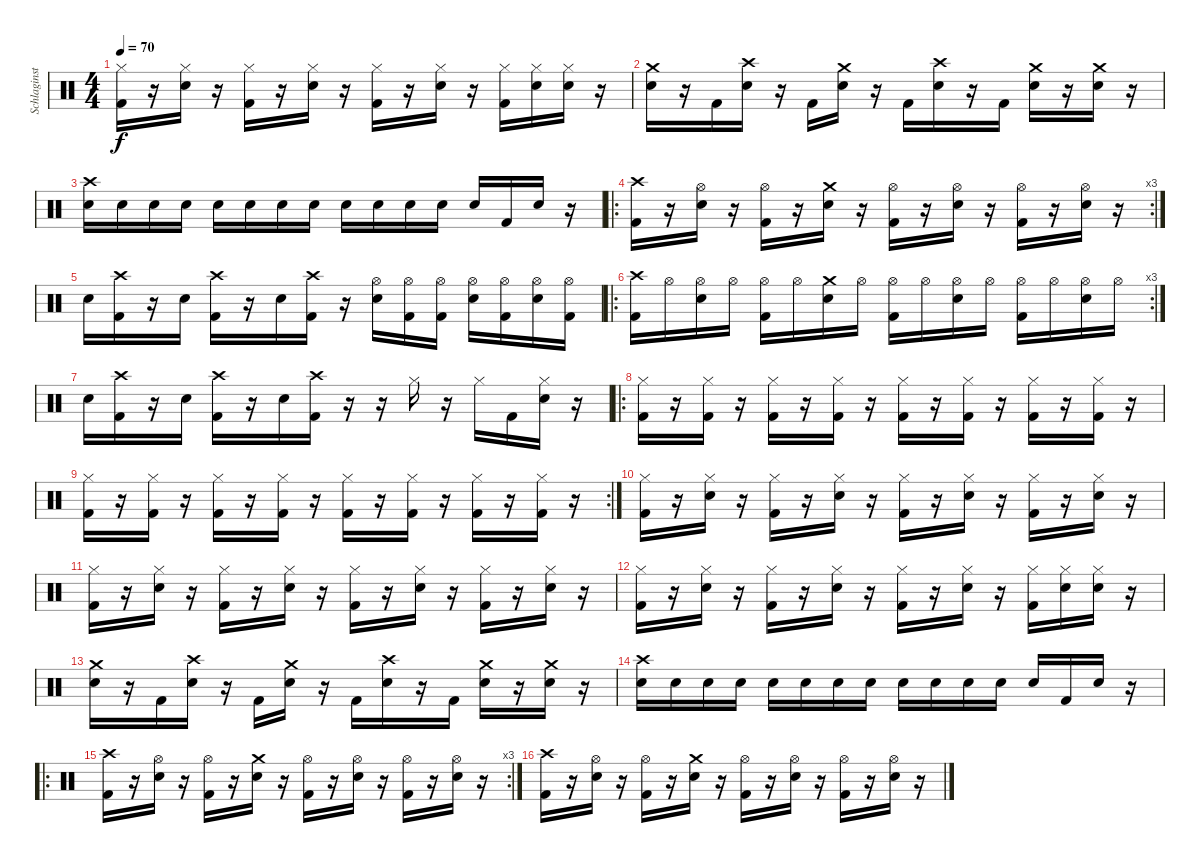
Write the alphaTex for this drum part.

\track ("Schlaginstrumente - Auswahl" "Schlaginst") {instrument percussion}
\staff {score}
\articulation defaults
\ts (4 4)
\tempo 70
\clef neutral
\ks c
("Hi-Hat (closed)" "Kick (hit) 2").16{dy f} r.16 ("Hi-Hat (closed)" "Snare (hit) 2").16 r.16 ("Hi-Hat (closed)" "Kick (hit) 2").16 r.16 ("Hi-Hat (closed)" "Snare (hit) 2").16 r.16 ("Hi-Hat (closed)" "Kick (hit) 2").16 r.16 ("Hi-Hat (closed)" "Snare (hit) 2").16 r.16 ("Hi-Hat (closed)" "Kick (hit) 2").16 ("Hi-Hat (closed)" "Snare (hit) 2").16 ("Hi-Hat (closed)" "Snare (hit) 2").16 r.16 |
("Crash medium (hit)" "Snare (hit) 2").16 r.16 "Kick (hit) 2".16 ("Crash high (hit)" "Snare (hit) 2").16 r.16 "Kick (hit) 2".16 ("Crash medium (hit)" "Snare (hit) 2").16 r.16 "Kick (hit) 2".16 ("Crash high (hit)" "Snare (hit) 2").16 r.16 "Kick (hit) 2".16 ("Crash medium (hit)" "Snare (hit) 2").16 r.16 ("Crash medium (hit)" "Snare (hit) 2").16 r.16 |
("Crash high (hit)" "Snare (hit) 2").16 "Snare (hit) 2".16 "Snare (hit) 2".16 "Snare (hit) 2".16 "Snare (hit) 2".16 "Snare (hit) 2".16 "Snare (hit) 2".16 "Snare (hit) 2".16 "Snare (hit) 2".16 "Snare (hit) 2".16 "Snare (hit) 2".16 "Snare (hit) 2".16 "Snare (hit) 2".16 "Kick (hit) 2".16 "Snare (hit) 2".16 r.16 |
\ro
\rc 3
("Crash high (hit)" "Kick (hit) 2").16 r.16 ("Hi-Hat (open)" "Snare (hit) 2").16 r.16 ("Hi-Hat (open)" "Kick (hit) 2").16 r.16 ("Crash medium (hit)" "Snare (hit) 2").16 r.16 ("Hi-Hat (open)" "Kick (hit) 2").16 r.16 ("Hi-Hat (open)" "Snare (hit) 2").16 r.16 ("Hi-Hat (open)" "Kick (hit) 2").16 r.16 ("Hi-Hat (open)" "Snare (hit) 2").16 r.16 |
"Snare (hit) 2".16 ("Crash high (hit)" "Kick (hit) 2").16 r.16 "Snare (hit) 2".16 ("Crash high (hit)" "Kick (hit) 2").16 r.16 "Snare (hit) 2".16 ("Crash high (hit)" "Kick (hit) 2").16 r.16 ("Hi-Hat (open)" "Snare (hit) 2").16 ("Hi-Hat (open)" "Kick (hit) 2").16 ("Hi-Hat (open)" "Kick (hit) 2").16 ("Hi-Hat (open)" "Snare (hit) 2").16 ("Hi-Hat (open)" "Kick (hit) 2").16 ("Hi-Hat (open)" "Snare (hit) 2").16 ("Hi-Hat (open)" "Kick (hit) 2").16 |
\ro
\rc 3
("Crash high (hit)" "Kick (hit) 2").16 "Hi-Hat (open)".16 ("Hi-Hat (open)" "Snare (hit) 2").16 "Hi-Hat (open)".16 ("Hi-Hat (open)" "Kick (hit) 2").16 "Hi-Hat (open)".16 ("Crash medium (hit)" "Snare (hit) 2").16 "Hi-Hat (open)".16 ("Hi-Hat (open)" "Kick (hit) 2").16 "Hi-Hat (open)".16 ("Hi-Hat (open)" "Snare (hit) 2").16 "Hi-Hat (open)".16 ("Hi-Hat (open)" "Kick (hit) 2").16 "Hi-Hat (open)".16 ("Hi-Hat (open)" "Snare (hit) 2").16 "Hi-Hat (open)".16 |
"Snare (hit) 2".16 ("Crash high (hit)" "Kick (hit) 2").16 r.16 "Snare (hit) 2".16 ("Crash high (hit)" "Kick (hit) 2").16 r.16 "Snare (hit) 2".16 ("Crash high (hit)" "Kick (hit) 2").16 r.16 r.16 "Hi-Hat (closed)".16 r.16 "Hi-Hat (closed)".16 "Kick (hit) 2".16 ("Hi-Hat (closed)" "Snare (hit) 2").16 r.16 |
\ro
("Hi-Hat (closed)" "Kick (hit) 2").16 r.16 ("Hi-Hat (closed)" "Kick (hit) 2").16 r.16 ("Hi-Hat (closed)" "Kick (hit) 2").16 r.16 ("Hi-Hat (closed)" "Kick (hit) 2").16 r.16 ("Hi-Hat (closed)" "Kick (hit) 2").16 r.16 ("Hi-Hat (closed)" "Kick (hit) 2").16 r.16 ("Hi-Hat (closed)" "Kick (hit) 2").16 r.16 ("Hi-Hat (closed)" "Kick (hit) 2").16 r.16 |
\rc 2
("Hi-Hat (closed)" "Kick (hit) 2").16 r.16 ("Hi-Hat (closed)" "Kick (hit) 2").16 r.16 ("Hi-Hat (closed)" "Kick (hit) 2").16 r.16 ("Hi-Hat (closed)" "Kick (hit) 2").16 r.16 ("Hi-Hat (closed)" "Kick (hit) 2").16 r.16 ("Hi-Hat (closed)" "Kick (hit) 2").16 r.16 ("Hi-Hat (closed)" "Kick (hit) 2").16 r.16 ("Hi-Hat (closed)" "Kick (hit) 2").16 r.16 |
("Hi-Hat (closed)" "Kick (hit) 2").16 r.16 ("Hi-Hat (closed)" "Snare (hit) 2").16 r.16 ("Hi-Hat (closed)" "Kick (hit) 2").16 r.16 ("Hi-Hat (closed)" "Snare (hit) 2").16 r.16 ("Hi-Hat (closed)" "Kick (hit) 2").16 r.16 ("Hi-Hat (closed)" "Snare (hit) 2").16 r.16 ("Hi-Hat (closed)" "Kick (hit) 2").16 r.16 ("Hi-Hat (closed)" "Snare (hit) 2").16 r.16 |
("Hi-Hat (closed)" "Kick (hit) 2").16 r.16 ("Hi-Hat (closed)" "Snare (hit) 2").16 r.16 ("Hi-Hat (closed)" "Kick (hit) 2").16 r.16 ("Hi-Hat (closed)" "Snare (hit) 2").16 r.16 ("Hi-Hat (closed)" "Kick (hit) 2").16 r.16 ("Hi-Hat (closed)" "Snare (hit) 2").16 r.16 ("Hi-Hat (closed)" "Kick (hit) 2").16 r.16 ("Hi-Hat (closed)" "Snare (hit) 2").16 r.16 |
("Hi-Hat (closed)" "Kick (hit) 2").16 r.16 ("Hi-Hat (closed)" "Snare (hit) 2").16 r.16 ("Hi-Hat (closed)" "Kick (hit) 2").16 r.16 ("Hi-Hat (closed)" "Snare (hit) 2").16 r.16 ("Hi-Hat (closed)" "Kick (hit) 2").16 r.16 ("Hi-Hat (closed)" "Snare (hit) 2").16 r.16 ("Hi-Hat (closed)" "Kick (hit) 2").16 ("Hi-Hat (closed)" "Snare (hit) 2").16 ("Hi-Hat (closed)" "Snare (hit) 2").16 r.16 |
("Crash medium (hit)" "Snare (hit) 2").16 r.16 "Kick (hit) 2".16 ("Crash high (hit)" "Snare (hit) 2").16 r.16 "Kick (hit) 2".16 ("Crash medium (hit)" "Snare (hit) 2").16 r.16 "Kick (hit) 2".16 ("Crash high (hit)" "Snare (hit) 2").16 r.16 "Kick (hit) 2".16 ("Crash medium (hit)" "Snare (hit) 2").16 r.16 ("Crash medium (hit)" "Snare (hit) 2").16 r.16 |
("Crash high (hit)" "Snare (hit) 2").16 "Snare (hit) 2".16 "Snare (hit) 2".16 "Snare (hit) 2".16 "Snare (hit) 2".16 "Snare (hit) 2".16 "Snare (hit) 2".16 "Snare (hit) 2".16 "Snare (hit) 2".16 "Snare (hit) 2".16 "Snare (hit) 2".16 "Snare (hit) 2".16 "Snare (hit) 2".16 "Kick (hit) 2".16 "Snare (hit) 2".16 r.16 |
\ro
\rc 3
("Crash high (hit)" "Kick (hit) 2").16 r.16 ("Hi-Hat (open)" "Snare (hit) 2").16 r.16 ("Hi-Hat (open)" "Kick (hit) 2").16 r.16 ("Crash medium (hit)" "Snare (hit) 2").16 r.16 ("Hi-Hat (open)" "Kick (hit) 2").16 r.16 ("Hi-Hat (open)" "Snare (hit) 2").16 r.16 ("Hi-Hat (open)" "Kick (hit) 2").16 r.16 ("Hi-Hat (open)" "Snare (hit) 2").16 r.16 |
("Crash high (hit)" "Kick (hit) 2").16 r.16 ("Hi-Hat (open)" "Snare (hit) 2").16 r.16 ("Hi-Hat (open)" "Kick (hit) 2").16 r.16 ("Crash medium (hit)" "Snare (hit) 2").16 r.16 ("Hi-Hat (open)" "Kick (hit) 2").16 r.16 ("Hi-Hat (open)" "Snare (hit) 2").16 r.16 ("Hi-Hat (open)" "Kick (hit) 2").16 r.16 ("Hi-Hat (open)" "Snare (hit) 2").16 r.16
